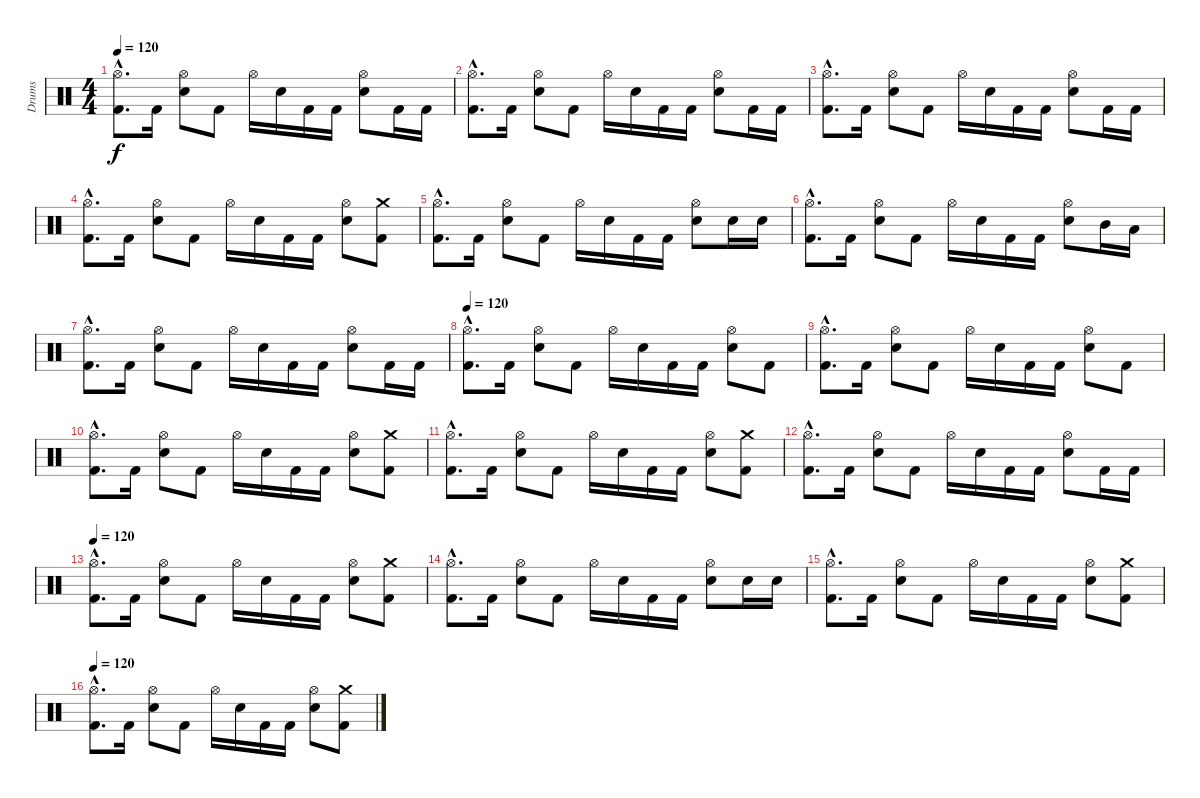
\track ("Drums" "Drums") {instrument percussion}
\staff {score}
\articulation defaults
\ts (4 4)
\tempo 120
\clef neutral
\ks c
("Hi-Hat (open)"{hac} "Kick (hit) 2"{hac}).8{d dy f} "Kick (hit) 2".16 ("Hi-Hat (open)" "Electric Snare (hit)").8 "Kick (hit) 2".8 "Hi-Hat (open)".16 "Electric Snare (hit)".16 "Kick (hit) 2".16 "Kick (hit) 2".16 ("Hi-Hat (open)" "Electric Snare (hit)").8 "Kick (hit) 2".16 "Kick (hit) 2".16 |
("Hi-Hat (open)"{hac} "Kick (hit) 2"{hac}).8{d} "Kick (hit) 2".16 ("Hi-Hat (open)" "Electric Snare (hit)").8 "Kick (hit) 2".8 "Hi-Hat (open)".16 "Electric Snare (hit)".16 "Kick (hit) 2".16 "Kick (hit) 2".16 ("Hi-Hat (open)" "Electric Snare (hit)").8 "Kick (hit) 2".16 "Kick (hit) 2".16 |
("Hi-Hat (open)"{hac} "Kick (hit) 2"{hac}).8{d} "Kick (hit) 2".16 ("Hi-Hat (open)" "Electric Snare (hit)").8 "Kick (hit) 2".8 "Hi-Hat (open)".16 "Electric Snare (hit)".16 "Kick (hit) 2".16 "Kick (hit) 2".16 ("Hi-Hat (open)" "Electric Snare (hit)").8 "Kick (hit) 2".16 "Kick (hit) 2".16 |
("Hi-Hat (open)"{hac} "Kick (hit) 2"{hac}).8{d} "Kick (hit) 2".16 ("Hi-Hat (open)" "Electric Snare (hit)").8 "Kick (hit) 2".8 "Hi-Hat (open)".16 "Electric Snare (hit)".16 "Kick (hit) 2".16 "Kick (hit) 2".16 ("Hi-Hat (open)" "Electric Snare (hit)").8 ("Crash medium (hit)" "Kick (hit) 2").8 |
("Hi-Hat (open)"{hac} "Kick (hit) 2"{hac}).8{d} "Kick (hit) 2".16 ("Hi-Hat (open)" "Electric Snare (hit)").8 "Kick (hit) 2".8 "Hi-Hat (open)".16 "Electric Snare (hit)".16 "Kick (hit) 2".16 "Kick (hit) 2".16 ("Hi-Hat (open)" "Electric Snare (hit)").8 "Electric Snare (hit)".16 "Electric Snare (hit)".16 |
("Hi-Hat (open)"{hac} "Kick (hit) 2"{hac}).8{d} "Kick (hit) 2".16 ("Hi-Hat (open)" "Electric Snare (hit)").8 "Kick (hit) 2".8 "Hi-Hat (open)".16 "Electric Snare (hit)".16 "Kick (hit) 2".16 "Kick (hit) 2".16 ("Hi-Hat (open)" "Electric Snare (hit)").8 "Mid Tom (hit)".16 "Low Tom (hit)".16 |
("Hi-Hat (open)"{hac} "Kick (hit) 2"{hac}).8{d} "Kick (hit) 2".16 ("Hi-Hat (open)" "Electric Snare (hit)").8 "Kick (hit) 2".8 "Hi-Hat (open)".16 "Electric Snare (hit)".16 "Kick (hit) 2".16 "Kick (hit) 2".16 ("Hi-Hat (open)" "Electric Snare (hit)").8 "Kick (hit) 2".16 "Kick (hit) 2".16 |
\tempo 120
("Hi-Hat (open)"{hac} "Kick (hit) 2"{hac}).8{d} "Kick (hit) 2".16 ("Hi-Hat (open)" "Electric Snare (hit)").8 "Kick (hit) 2".8 "Hi-Hat (open)".16 "Electric Snare (hit)".16 "Kick (hit) 2".16 "Kick (hit) 2".16 ("Hi-Hat (open)" "Electric Snare (hit)").8 "Kick (hit) 2".8 |
("Hi-Hat (open)"{hac} "Kick (hit) 2"{hac}).8{d} "Kick (hit) 2".16 ("Hi-Hat (open)" "Electric Snare (hit)").8 "Kick (hit) 2".8 "Hi-Hat (open)".16 "Electric Snare (hit)".16 "Kick (hit) 2".16 "Kick (hit) 2".16 ("Hi-Hat (open)" "Electric Snare (hit)").8 "Kick (hit) 2".8 |
("Hi-Hat (open)"{hac} "Kick (hit) 2"{hac}).8{d} "Kick (hit) 2".16 ("Hi-Hat (open)" "Electric Snare (hit)").8 "Kick (hit) 2".8 "Hi-Hat (open)".16 "Electric Snare (hit)".16 "Kick (hit) 2".16 "Kick (hit) 2".16 ("Hi-Hat (open)" "Electric Snare (hit)").8 ("Crash medium (hit)" "Kick (hit) 2").8 |
("Hi-Hat (open)"{hac} "Kick (hit) 2"{hac}).8{d} "Kick (hit) 2".16 ("Hi-Hat (open)" "Electric Snare (hit)").8 "Kick (hit) 2".8 "Hi-Hat (open)".16 "Electric Snare (hit)".16 "Kick (hit) 2".16 "Kick (hit) 2".16 ("Hi-Hat (open)" "Electric Snare (hit)").8 ("Crash medium (hit)" "Kick (hit) 2").8 |
("Hi-Hat (open)"{hac} "Kick (hit) 2"{hac}).8{d} "Kick (hit) 2".16 ("Hi-Hat (open)" "Electric Snare (hit)").8 "Kick (hit) 2".8 "Hi-Hat (open)".16 "Electric Snare (hit)".16 "Kick (hit) 2".16 "Kick (hit) 2".16 ("Hi-Hat (open)" "Electric Snare (hit)").8 "Kick (hit) 2".16 "Kick (hit) 2".16 |
\tempo 120
("Hi-Hat (open)"{hac} "Kick (hit) 2"{hac}).8{d} "Kick (hit) 2".16 ("Hi-Hat (open)" "Electric Snare (hit)").8 "Kick (hit) 2".8 "Hi-Hat (open)".16 "Electric Snare (hit)".16 "Kick (hit) 2".16 "Kick (hit) 2".16 ("Hi-Hat (open)" "Electric Snare (hit)").8 ("Crash medium (hit)" "Kick (hit) 2").8 |
("Hi-Hat (open)"{hac} "Kick (hit) 2"{hac}).8{d} "Kick (hit) 2".16 ("Hi-Hat (open)" "Electric Snare (hit)").8 "Kick (hit) 2".8 "Hi-Hat (open)".16 "Electric Snare (hit)".16 "Kick (hit) 2".16 "Kick (hit) 2".16 ("Hi-Hat (open)" "Electric Snare (hit)").8 "Electric Snare (hit)".16 "Electric Snare (hit)".16 |
("Hi-Hat (open)"{hac} "Kick (hit) 2"{hac}).8{d} "Kick (hit) 2".16 ("Hi-Hat (open)" "Electric Snare (hit)").8 "Kick (hit) 2".8 "Hi-Hat (open)".16 "Electric Snare (hit)".16 "Kick (hit) 2".16 "Kick (hit) 2".16 ("Hi-Hat (open)" "Electric Snare (hit)").8 ("Crash medium (hit)" "Kick (hit) 2").8 |
\tempo 105
\tempo 120
("Hi-Hat (open)"{hac} "Kick (hit) 2"{hac}).8{d} "Kick (hit) 2".16 ("Hi-Hat (open)" "Electric Snare (hit)").8 "Kick (hit) 2".8 "Hi-Hat (open)".16 "Electric Snare (hit)".16 "Kick (hit) 2".16 "Kick (hit) 2".16 ("Hi-Hat (open)" "Electric Snare (hit)").8 ("Crash medium (hit)" "Kick (hit) 2").8
